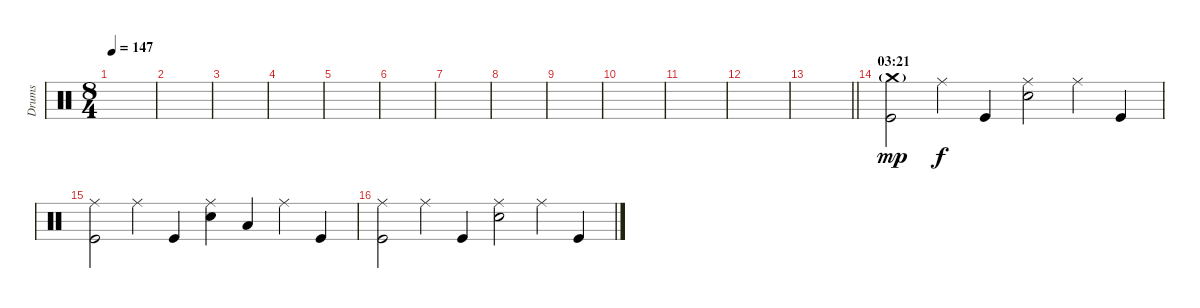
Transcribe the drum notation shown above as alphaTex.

\track ("Drums" "Drums") {instrument percussion}
\staff {score}
\articulation defaults
\ts (8 4)
\tempo 147
\clef neutral
\ks c
|
|
|
|
|
|
|
|
|
|
|
|
\barLineRight lightlight
|
\section ("" "03:21")
("Crash medium (hit)"{g} "Kick (hit)").2{dy mp} "Ride (middle)".4{dy f} "Kick (hit)".4 ("Ride (middle)" "Electric Snare (hit)").2 "Ride (middle)".4 "Kick (hit)".4 |
("Ride (middle)" "Kick (hit)").2 "Ride (middle)".4 "Kick (hit)".4 ("Ride (middle)" "Electric Snare (hit)").4 "Low Tom (hit)".4 "Ride (middle)".4 "Kick (hit)".4 |
("Ride (middle)" "Kick (hit)").2 "Ride (middle)".4 "Kick (hit)".4 ("Ride (middle)" "Electric Snare (hit)").2 "Ride (middle)".4 "Kick (hit)".4
